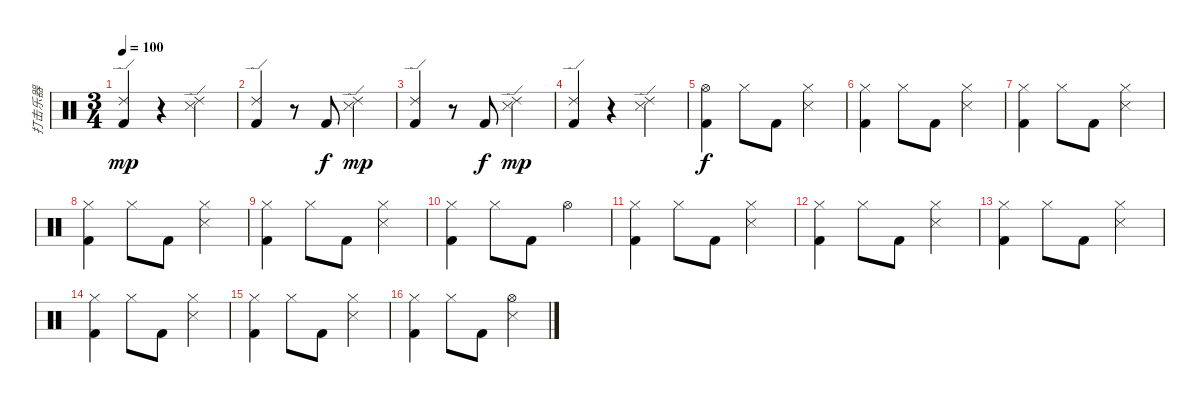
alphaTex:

\track ("打击乐器" "打击乐器") {instrument percussion}
\staff {score}
\articulation defaults
\ts (3 4)
\tempo 100
\clef neutral
\ks c
("Ride (edge) 2" "Kick (hit) 2").4{dy mp} r.4 ("Ride (edge) 2" "Snare (side stick) 3").4 |
("Ride (edge) 2" "Kick (hit) 2").4 r.8 "Kick (hit) 2".8{dy f} ("Ride (edge) 2" "Snare (side stick) 3").4{dy mp} |
("Ride (edge) 2" "Kick (hit) 2").4 r.8 "Kick (hit) 2".8{dy f} ("Ride (edge) 2" "Snare (side stick) 3").4{dy mp} |
("Ride (edge) 2" "Kick (hit) 2").4 r.4 ("Ride (edge) 2" "Snare (side stick) 3").4 |
("Hi-Hat (open)" "Kick (hit) 2").4{dy f} "Hi-Hat (closed)".8 "Kick (hit) 2".8 ("Hi-Hat (closed)" "Snare (side stick) 3").4 |
("Hi-Hat (closed)" "Kick (hit) 2").4 "Hi-Hat (closed)".8 "Kick (hit) 2".8 ("Hi-Hat (closed)" "Snare (side stick) 3").4 |
("Hi-Hat (closed)" "Kick (hit) 2").4 "Hi-Hat (closed)".8 "Kick (hit) 2".8 ("Hi-Hat (closed)" "Snare (side stick) 3").4 |
("Hi-Hat (closed)" "Kick (hit) 2").4 "Hi-Hat (closed)".8 "Kick (hit) 2".8 ("Hi-Hat (closed)" "Snare (side stick) 3").4 |
("Hi-Hat (closed)" "Kick (hit) 2").4 "Hi-Hat (closed)".8 "Kick (hit) 2".8 ("Hi-Hat (closed)" "Snare (side stick) 3").4 |
("Hi-Hat (closed)" "Kick (hit) 2").4 "Hi-Hat (closed)".8 "Kick (hit) 2".8 "Hi-Hat (open)".4 |
("Hi-Hat (closed)" "Kick (hit) 2").4 "Hi-Hat (closed)".8 "Kick (hit) 2".8 ("Hi-Hat (closed)" "Snare (side stick) 3").4 |
("Hi-Hat (closed)" "Kick (hit) 2").4 "Hi-Hat (closed)".8 "Kick (hit) 2".8 ("Hi-Hat (closed)" "Snare (side stick) 3").4 |
("Hi-Hat (closed)" "Kick (hit) 2").4 "Hi-Hat (closed)".8 "Kick (hit) 2".8 ("Hi-Hat (closed)" "Snare (side stick) 3").4 |
("Hi-Hat (closed)" "Kick (hit) 2").4 "Hi-Hat (closed)".8 "Kick (hit) 2".8 ("Hi-Hat (closed)" "Snare (side stick) 3").4 |
("Hi-Hat (closed)" "Kick (hit) 2").4 "Hi-Hat (closed)".8 "Kick (hit) 2".8 ("Hi-Hat (closed)" "Snare (side stick) 3").4 |
("Hi-Hat (closed)" "Kick (hit) 2").4 "Hi-Hat (closed)".8 "Kick (hit) 2".8 ("Hi-Hat (open)" "Snare (side stick) 3").4
